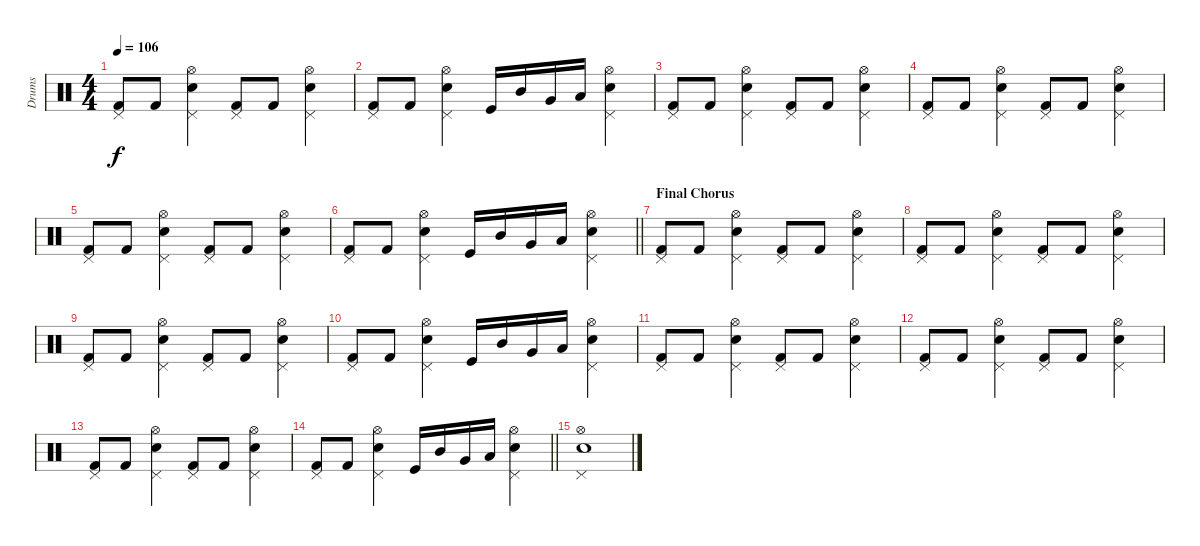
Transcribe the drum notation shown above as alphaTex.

\track ("Drums" "Drums") {instrument percussion}
\staff {score}
\articulation defaults
\ts (4 4)
\tempo 106
\clef neutral
\ks c
("Kick (hit) 2" "Pedal Hi-Hat (hit)").8{dy f} "Kick (hit) 2".8 ("Pedal Hi-Hat (hit)" "Electric Snare (hit)" "Hi-Hat (open)").4 ("Kick (hit) 2" "Pedal Hi-Hat (hit)").8 "Kick (hit) 2".8 ("Pedal Hi-Hat (hit)" "Electric Snare (hit)" "Hi-Hat (open)").4 |
("Kick (hit) 2" "Pedal Hi-Hat (hit)").8 "Kick (hit) 2".8 ("Pedal Hi-Hat (hit)" "Electric Snare (hit)" "Hi-Hat (open)").4 "Kick (hit)".16 "Mid Tom (hit)".16 "Very Low Tom (hit)".16 "Low Tom (hit)".16 ("Pedal Hi-Hat (hit)" "Electric Snare (hit)" "Hi-Hat (open)").4 |
("Kick (hit) 2" "Pedal Hi-Hat (hit)").8 "Kick (hit) 2".8 ("Pedal Hi-Hat (hit)" "Electric Snare (hit)" "Hi-Hat (open)").4 ("Kick (hit) 2" "Pedal Hi-Hat (hit)").8 "Kick (hit) 2".8 ("Pedal Hi-Hat (hit)" "Electric Snare (hit)" "Hi-Hat (open)").4 |
("Kick (hit) 2" "Pedal Hi-Hat (hit)").8 "Kick (hit) 2".8 ("Pedal Hi-Hat (hit)" "Electric Snare (hit)" "Hi-Hat (open)").4 ("Kick (hit) 2" "Pedal Hi-Hat (hit)").8 "Kick (hit) 2".8 ("Pedal Hi-Hat (hit)" "Electric Snare (hit)" "Hi-Hat (open)").4 |
("Kick (hit) 2" "Pedal Hi-Hat (hit)").8 "Kick (hit) 2".8 ("Pedal Hi-Hat (hit)" "Electric Snare (hit)" "Hi-Hat (open)").4 ("Kick (hit) 2" "Pedal Hi-Hat (hit)").8 "Kick (hit) 2".8 ("Pedal Hi-Hat (hit)" "Electric Snare (hit)" "Hi-Hat (open)").4 |
\barLineRight lightlight
("Kick (hit) 2" "Pedal Hi-Hat (hit)").8 "Kick (hit) 2".8 ("Pedal Hi-Hat (hit)" "Electric Snare (hit)" "Hi-Hat (open)").4 "Kick (hit)".16 "Mid Tom (hit)".16 "Very Low Tom (hit)".16 "Low Tom (hit)".16 ("Pedal Hi-Hat (hit)" "Electric Snare (hit)" "Hi-Hat (open)").4 |
\section ("" "Final Chorus")
("Kick (hit) 2" "Pedal Hi-Hat (hit)").8 "Kick (hit) 2".8 ("Pedal Hi-Hat (hit)" "Electric Snare (hit)" "Hi-Hat (open)").4 ("Kick (hit) 2" "Pedal Hi-Hat (hit)").8 "Kick (hit) 2".8 ("Pedal Hi-Hat (hit)" "Electric Snare (hit)" "Hi-Hat (open)").4 |
("Kick (hit) 2" "Pedal Hi-Hat (hit)").8 "Kick (hit) 2".8 ("Pedal Hi-Hat (hit)" "Electric Snare (hit)" "Hi-Hat (open)").4 ("Kick (hit) 2" "Pedal Hi-Hat (hit)").8 "Kick (hit) 2".8 ("Pedal Hi-Hat (hit)" "Electric Snare (hit)" "Hi-Hat (open)").4 |
("Kick (hit) 2" "Pedal Hi-Hat (hit)").8 "Kick (hit) 2".8 ("Pedal Hi-Hat (hit)" "Electric Snare (hit)" "Hi-Hat (open)").4 ("Kick (hit) 2" "Pedal Hi-Hat (hit)").8 "Kick (hit) 2".8 ("Pedal Hi-Hat (hit)" "Electric Snare (hit)" "Hi-Hat (open)").4 |
("Kick (hit) 2" "Pedal Hi-Hat (hit)").8 "Kick (hit) 2".8 ("Pedal Hi-Hat (hit)" "Electric Snare (hit)" "Hi-Hat (open)").4 "Kick (hit)".16 "Mid Tom (hit)".16 "Very Low Tom (hit)".16 "Low Tom (hit)".16 ("Pedal Hi-Hat (hit)" "Electric Snare (hit)" "Hi-Hat (open)").4 |
("Kick (hit) 2" "Pedal Hi-Hat (hit)").8 "Kick (hit) 2".8 ("Pedal Hi-Hat (hit)" "Electric Snare (hit)" "Hi-Hat (open)").4 ("Kick (hit) 2" "Pedal Hi-Hat (hit)").8 "Kick (hit) 2".8 ("Pedal Hi-Hat (hit)" "Electric Snare (hit)" "Hi-Hat (open)").4 |
("Kick (hit) 2" "Pedal Hi-Hat (hit)").8 "Kick (hit) 2".8 ("Pedal Hi-Hat (hit)" "Electric Snare (hit)" "Hi-Hat (open)").4 ("Kick (hit) 2" "Pedal Hi-Hat (hit)").8 "Kick (hit) 2".8 ("Pedal Hi-Hat (hit)" "Electric Snare (hit)" "Hi-Hat (open)").4 |
("Kick (hit) 2" "Pedal Hi-Hat (hit)").8 "Kick (hit) 2".8 ("Pedal Hi-Hat (hit)" "Electric Snare (hit)" "Hi-Hat (open)").4 ("Kick (hit) 2" "Pedal Hi-Hat (hit)").8 "Kick (hit) 2".8 ("Pedal Hi-Hat (hit)" "Electric Snare (hit)" "Hi-Hat (open)").4 |
\barLineRight lightlight
("Kick (hit) 2" "Pedal Hi-Hat (hit)").8 "Kick (hit) 2".8 ("Pedal Hi-Hat (hit)" "Electric Snare (hit)" "Hi-Hat (open)").4 "Kick (hit)".16 "Mid Tom (hit)".16 "Very Low Tom (hit)".16 "Low Tom (hit)".16 ("Pedal Hi-Hat (hit)" "Electric Snare (hit)" "Hi-Hat (open)").4 |
("Pedal Hi-Hat (hit)" "Electric Snare (hit)" "Hi-Hat (open)").1
